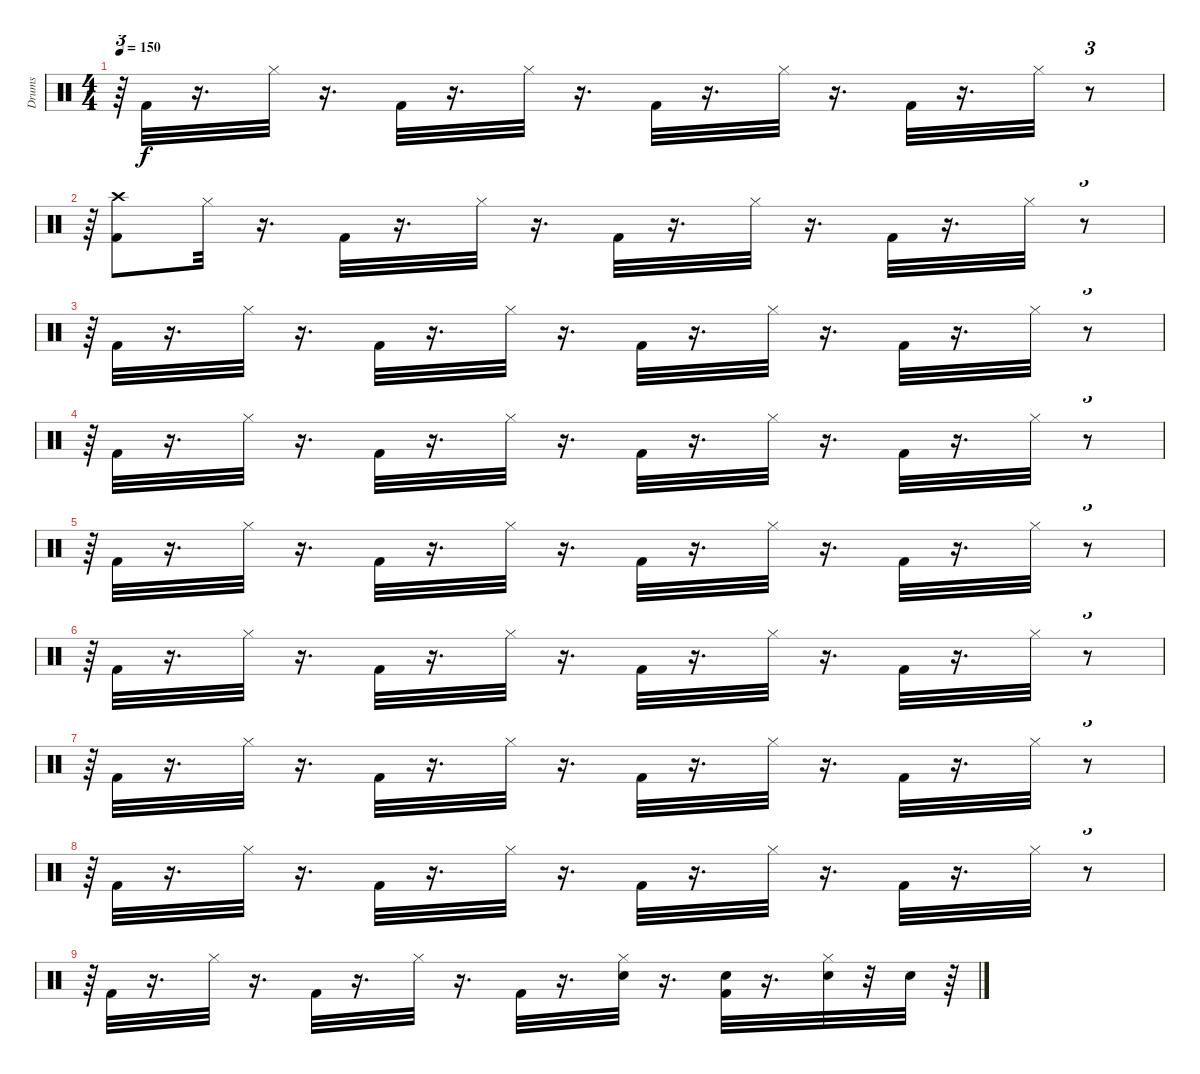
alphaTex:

\track ("Drums" "Drums") {instrument percussion}
\staff {score}
\articulation defaults
\ts (4 4)
\tempo 150
\clef neutral
\ks c
r.64{tu (3 2) dy f} "Kick (hit) 2".32 r.16{d} "Hi-Hat (closed)".32 r.16{d} "Kick (hit) 2".32 r.16{d} "Hi-Hat (closed)".32 r.16{d} "Kick (hit) 2".32 r.16{d} "Hi-Hat (closed)".32 r.16{d} "Kick (hit) 2".32 r.16{d} "Hi-Hat (closed)".32 r.8{tu (3 2)} |
r.64{tu (3 2)} ("Kick (hit) 2" "Crash high (hit)").8 "Hi-Hat (closed)".32 r.16{d} "Kick (hit) 2".32 r.16{d} "Hi-Hat (closed)".32 r.16{d} "Kick (hit) 2".32 r.16{d} "Hi-Hat (closed)".32 r.16{d} "Kick (hit) 2".32 r.16{d} "Hi-Hat (closed)".32 r.8{tu (3 2)} |
r.64{tu (3 2)} "Kick (hit) 2".32 r.16{d} "Hi-Hat (closed)".32{volume 13} r.16{d} "Kick (hit) 2".32{volume 13} r.16{d} "Hi-Hat (closed)".32{volume 13} r.16{d} "Kick (hit) 2".32{volume 12} r.16{d} "Hi-Hat (closed)".32{volume 12} r.16{d} "Kick (hit) 2".32{volume 12} r.16{d} "Hi-Hat (closed)".32{volume 12} r.8{tu (3 2)} |
r.64{tu (3 2)} "Kick (hit) 2".32{volume 12} r.16{d} "Hi-Hat (closed)".32{volume 11} r.16{d} "Kick (hit) 2".32{volume 11} r.16{d} "Hi-Hat (closed)".32{volume 11} r.16{d} "Kick (hit) 2".32{volume 10} r.16{d} "Hi-Hat (closed)".32{volume 10} r.16{d} "Kick (hit) 2".32{volume 10} r.16{d} "Hi-Hat (closed)".32{volume 10} r.8{tu (3 2)} |
r.64{tu (3 2)} "Kick (hit) 2".32{volume 10} r.16{d} "Hi-Hat (closed)".32{volume 9} r.16{d} "Kick (hit) 2".32{volume 9} r.16{d} "Hi-Hat (closed)".32{volume 9} r.16{d} "Kick (hit) 2".32{volume 9} r.16{d} "Hi-Hat (closed)".32{volume 8} r.16{d} "Kick (hit) 2".32{volume 8} r.16{d} "Hi-Hat (closed)".32{volume 8} r.8{tu (3 2)} |
r.64{tu (3 2)} "Kick (hit) 2".32{volume 8} r.16{d} "Hi-Hat (closed)".32{volume 7} r.16{d} "Kick (hit) 2".32{volume 7} r.16{d} "Hi-Hat (closed)".32{volume 7} r.16{d} "Kick (hit) 2".32{volume 7} r.16{d} "Hi-Hat (closed)".32{volume 6} r.16{d} "Kick (hit) 2".32{volume 6} r.16{d} "Hi-Hat (closed)".32{volume 6} r.8{tu (3 2)} |
r.64{tu (3 2)} "Kick (hit) 2".32{volume 6} r.16{d} "Hi-Hat (closed)".32{volume 5} r.16{d} "Kick (hit) 2".32{volume 5} r.16{d} "Hi-Hat (closed)".32{volume 5} r.16{d} "Kick (hit) 2".32{volume 5} r.16{d} "Hi-Hat (closed)".32{volume 4} r.16{d} "Kick (hit) 2".32{volume 4} r.16{d} "Hi-Hat (closed)".32{volume 4} r.8{tu (3 2)} |
r.64{tu (3 2)} "Kick (hit) 2".32{volume 4} r.16{d} "Hi-Hat (closed)".32{volume 4} r.16{d} "Kick (hit) 2".32{volume 3} r.16{d} "Hi-Hat (closed)".32{volume 3} r.16{d} "Kick (hit) 2".32{volume 3} r.16{d} "Hi-Hat (closed)".32{volume 2} r.16{d} "Kick (hit) 2".32{volume 2} r.16{d} "Hi-Hat (closed)".32{volume 2} r.8{tu (3 2)} |
r.64{tu (3 2)} "Kick (hit) 2".32{volume 2} r.16{d} "Hi-Hat (closed)".32{volume 2} r.16{d} "Kick (hit) 2".32{volume 1} r.16{d} "Hi-Hat (closed)".32{volume 1} r.16{d} "Kick (hit) 2".32{volume 1} r.16{d} ("Snare (hit) 2" "Hi-Hat (closed)").32{volume 0} r.16{d} ("Snare (hit) 2" "Kick (hit) 2").32{volume 0} r.16{d} ("Snare (hit) 2" "Hi-Hat (closed)").32{volume 0} r.32 "Snare (hit) 2".32 r.64
